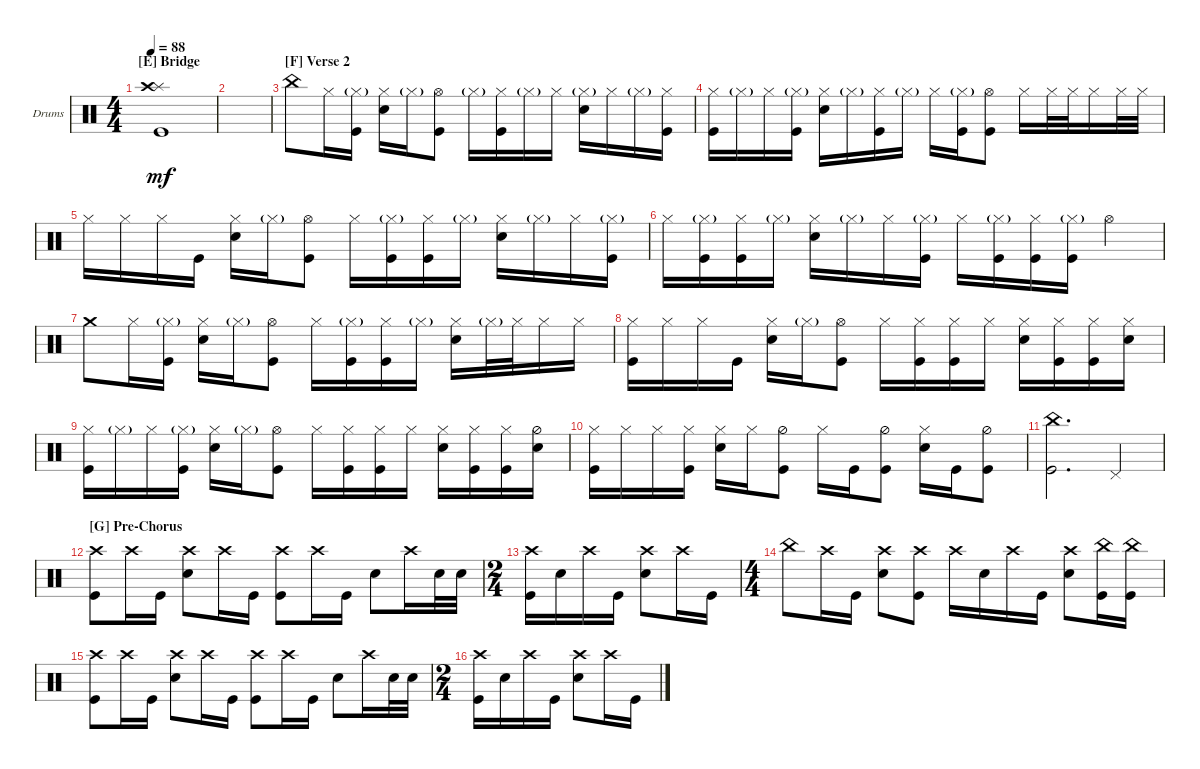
\defaultSystemsLayout 4
\bracketExtendMode groupsimilarinstruments
\firstSystemTrackNameOrientation horizontal
\otherSystemsTrackNameOrientation horizontal
\track ("Drumkit" "Drums") {instrument percussion}
\staff {score}
\articulation defaults
\ts (4 4)
\section ("E" "Bridge")
\tempo 88
\clef neutral
\scale
0.333333
\ks c
("Kick (hit)" "Splash (hit)" "Crash high (hit)").1{dy mf} |
\scale
0.333333 |
\section ("F" "Verse 2")
\scale
0.333333 "China (hit)".8 "Hi-Hat (closed)".16 ("Hi-Hat (closed)"{g} "Kick (hit)").16 ("Hi-Hat (closed)" "Snare (hit) 2").16 "Hi-Hat (closed)"{g}.16 ("Hi-Hat (open)" "Kick (hit)").8 "Hi-Hat (closed)"{g}.16 ("Hi-Hat (closed)" "Kick (hit)").16 "Hi-Hat (closed)"{g}.16 "Hi-Hat (closed)".16 ("Hi-Hat (closed)"{g} "Snare (hit) 2").16 "Hi-Hat (closed)".16 "Hi-Hat (closed)"{g}.16 ("Hi-Hat (closed)" "Kick (hit)").16 |
\scale
0.333333 ("Hi-Hat (closed)" "Kick (hit)").16 "Hi-Hat (closed)"{g}.16 "Hi-Hat (closed)".16 ("Hi-Hat (closed)"{g} "Kick (hit)").16 ("Hi-Hat (closed)" "Snare (hit) 2").16 "Hi-Hat (closed)"{g}.16 ("Hi-Hat (closed)" "Kick (hit)").16 "Hi-Hat (closed)"{g}.16 "Hi-Hat (closed)".16 ("Hi-Hat (closed)"{g} "Kick (hit)").16 ("Hi-Hat (open)" "Kick (hit)").8 "Hi-Hat (closed)".16 "Hi-Hat (closed)".32 "Hi-Hat (closed)".32 "Hi-Hat (closed)".16 "Hi-Hat (closed)".32 "Hi-Hat (closed)".32 |
\scale
0.333333 "Hi-Hat (closed)".16 "Hi-Hat (closed)".16 "Hi-Hat (closed)".16 "Kick (hit)".16 ("Snare (hit) 2" "Hi-Hat (closed)").16 "Hi-Hat (closed)"{g}.16 ("Hi-Hat (open)" "Kick (hit)").8 "Hi-Hat (closed)".16 ("Hi-Hat (closed)"{g} "Kick (hit)").16 ("Hi-Hat (closed)" "Kick (hit)").16 "Hi-Hat (closed)"{g}.16 ("Hi-Hat (closed)" "Snare (hit) 2").16 "Hi-Hat (closed)"{g}.16 "Hi-Hat (closed)".16 ("Hi-Hat (closed)"{g} "Kick (hit)").16 |
\scale
0.333333 "Hi-Hat (closed)".16 ("Hi-Hat (closed)"{g} "Kick (hit)").16 ("Hi-Hat (closed)" "Kick (hit)").16 "Hi-Hat (closed)"{g}.16 ("Hi-Hat (closed)" "Snare (hit) 2").16 "Hi-Hat (closed)"{g}.16 "Hi-Hat (closed)".16 ("Hi-Hat (closed)"{g} "Kick (hit)").16 "Hi-Hat (closed)".16 ("Hi-Hat (closed)"{g} "Kick (hit)").16 ("Hi-Hat (closed)" "Kick (hit)").16 ("Hi-Hat (closed)"{g} "Kick (hit)").16 "Hi-Hat (open)".4 |
\scale
0.333333 "Crash medium (hit)".8 "Hi-Hat (closed)".16 ("Hi-Hat (closed)"{g} "Kick (hit)").16 ("Hi-Hat (closed)" "Snare (hit) 2").16 "Hi-Hat (closed)"{g}.16 ("Hi-Hat (open)" "Kick (hit)").8 "Hi-Hat (closed)".16 ("Hi-Hat (closed)"{g} "Kick (hit)").16 ("Hi-Hat (closed)" "Kick (hit)").16 "Hi-Hat (closed)"{g}.16 ("Hi-Hat (closed)" "Snare (hit) 2").16 "Hi-Hat (closed)"{g}.32 "Hi-Hat (closed)".32 "Hi-Hat (closed)".16 "Hi-Hat (closed)".16 |
\scale
0.333333 ("Hi-Hat (closed)" "Kick (hit)").16 "Hi-Hat (closed)".16 "Hi-Hat (closed)".16 "Kick (hit)".16 ("Hi-Hat (closed)" "Snare (hit) 2").16 "Hi-Hat (closed)"{g}.16 ("Hi-Hat (open)" "Kick (hit)").8 "Hi-Hat (closed)".16 ("Hi-Hat (closed)" "Kick (hit)").16 ("Hi-Hat (closed)" "Kick (hit)").16 "Hi-Hat (closed)".16 ("Hi-Hat (closed)" "Snare (hit) 2").16 ("Hi-Hat (closed)" "Kick (hit)").16 ("Hi-Hat (closed)" "Kick (hit)").16 ("Hi-Hat (closed)" "Snare (hit) 2").16 |
\scale
0.333333 ("Hi-Hat (closed)" "Kick (hit)").16 "Hi-Hat (closed)"{g}.16 "Hi-Hat (closed)".16 ("Hi-Hat (closed)"{g} "Kick (hit)").16 ("Hi-Hat (closed)" "Snare (hit) 2").16 "Hi-Hat (closed)"{g}.16 ("Hi-Hat (open)" "Kick (hit)").8 "Hi-Hat (closed)".16 ("Hi-Hat (closed)" "Kick (hit)").16 ("Hi-Hat (closed)" "Kick (hit)").16 "Hi-Hat (closed)".16 ("Hi-Hat (closed)" "Snare (hit) 2").16 ("Hi-Hat (closed)" "Kick (hit)").16 ("Hi-Hat (closed)" "Kick (hit)").16 ("Hi-Hat (half)" "Snare (hit) 2").16 |
\scale
0.333333 ("Hi-Hat (closed)" "Kick (hit)").16 "Hi-Hat (closed)".16 "Hi-Hat (closed)".16 ("Hi-Hat (closed)" "Kick (hit)").16 ("Hi-Hat (closed)" "Snare (hit) 2").16 "Hi-Hat (closed)".16 ("Hi-Hat (half)" "Kick (hit)").8 "Hi-Hat (closed)".16 "Kick (hit)".16 ("Kick (hit)" "Hi-Hat (half)").8 ("Hi-Hat (closed)" "Snare (hit) 2").16 "Kick (hit)".16 ("Kick (hit)" "Hi-Hat (half)").8 |
\scale
0.263889 ("China (hit)" "Kick (hit)").2{d} "Pedal Hi-Hat (hit)".4 |
\section ("G" "Pre-Chorus")
\scale
0.263889 ("Crash high (hit)" "Kick (hit)").8 "Crash high (hit)".16 "Kick (hit)".16 ("Snare (hit) 2" "Crash high (hit)").8 "Crash high (hit)".16 "Kick (hit)".16 ("Crash high (hit)" "Kick (hit)").8 "Crash high (hit)".16 "Kick (hit)".16 "Snare (hit) 2".8 "Crash high (hit)".16 "Snare (hit) 2".32 "Snare (hit) 2".32 |
\ts (2 4)
\scale
0.472222 ("Kick (hit)" "Crash high (hit)").16 "Snare (hit) 2".16 "Crash high (hit)".16 "Kick (hit)".16 ("Snare (hit) 2" "Crash high (hit)").8 "Crash high (hit)".16 "Kick (hit)".16 |
\ts (4 4)
\scale
0.390805 "China (hit)".8 "Crash high (hit)".16 "Kick (hit)".16 ("Snare (hit) 2" "Crash high (hit)").8 ("Crash high (hit)" "Kick (hit)").8 "Crash high (hit)".16 "Snare (hit) 2".16 "Crash high (hit)".16 "Kick (hit)".16 ("Crash high (hit)" "Snare (hit) 2").8 ("China (hit)" "Kick (hit)").16 ("China (hit)" "Kick (hit)").16 |
\scale
0.218391 ("Crash high (hit)" "Kick (hit)").8 "Crash high (hit)".16 "Kick (hit)".16 ("Snare (hit) 2" "Crash high (hit)").8 "Crash high (hit)".16 "Kick (hit)".16 ("Crash high (hit)" "Kick (hit)").8 "Crash high (hit)".16 "Kick (hit)".16 "Snare (hit) 2".8 "Crash high (hit)".16 "Snare (hit) 2".32 "Snare (hit) 2".32 |
\ts (2 4)
\scale
0.390805 ("Kick (hit)" "Crash high (hit)").16 "Snare (hit) 2".16 "Crash high (hit)".16 "Kick (hit)".16 ("Snare (hit) 2" "Crash high (hit)").8 "Crash high (hit)".16 "Kick (hit)".16
